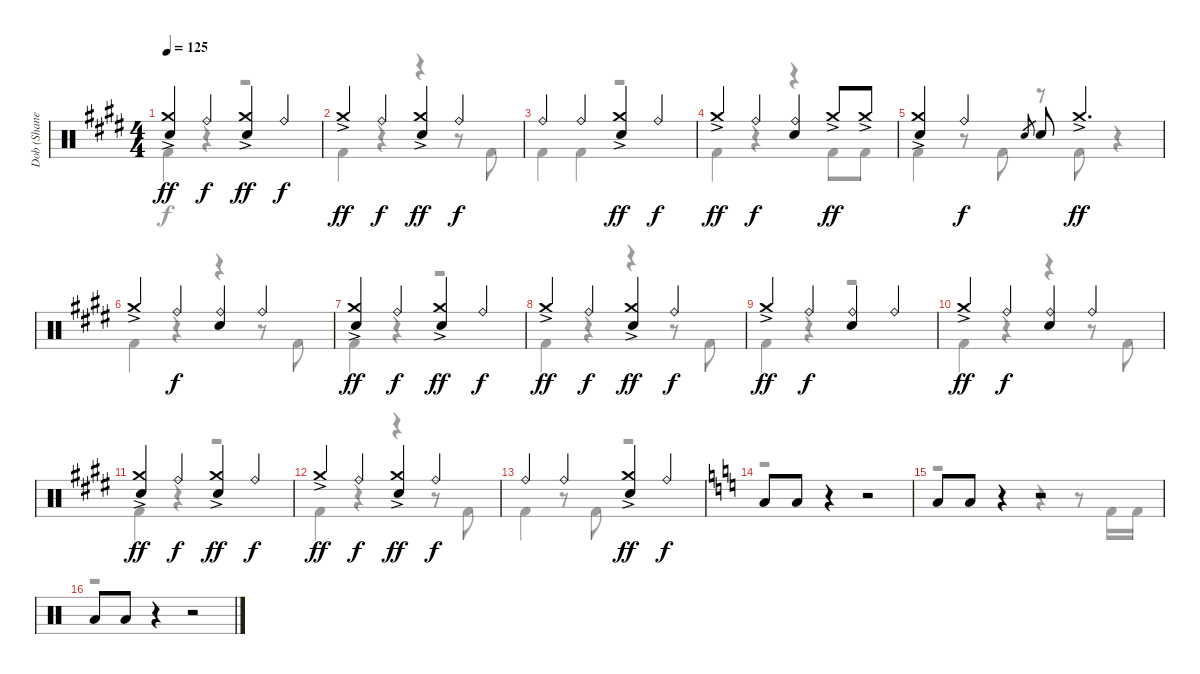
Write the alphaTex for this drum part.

\track ("Dob (Shane Gaalaas)" "Dob (Shane") {instrument percussion}
\staff {score}
\articulation defaults
\voice
\ts (4 4)
\tempo 125
\clef neutral
\ks e
("Crash medium (hit)"{ac} "Electric Snare (hit)").4{dy ff} "Ride (bell)".4{dy f} ("Crash medium (hit)"{ac} "Electric Snare (hit)").4{dy ff} "Ride (bell)".4{dy f} |
"Crash medium (hit)"{ac}.4{dy ff} "Ride (bell)".4{dy f} ("Crash medium (hit)"{ac} "Electric Snare (hit)").4{dy ff} "Ride (bell)".4{dy f} |
"Ride (bell)".4 "Ride (bell)".4 ("Crash medium (hit)"{ac} "Electric Snare (hit)").4{dy ff} "Ride (bell)".4{dy f} |
"Crash medium (hit)"{ac}.4{dy ff} "Ride (bell)".4{dy f} ("Ride (bell)" "Electric Snare (hit)").4 "Crash medium (hit)"{ac}.8{dy ff} "Crash medium (hit)"{ac}.8 |
("Crash medium (hit)"{ac} "Electric Snare (hit)").4 "Ride (bell)".4{dy f} "Electric Snare (hit)".8{gr} "Electric Snare (hit)".8 "Crash medium (hit)"{ac}.4{d dy ff} |
"Crash medium (hit)"{ac}.4 "Ride (bell)".4{dy f} ("Ride (bell)" "Electric Snare (hit)").4 "Ride (bell)".4 |
("Crash medium (hit)"{ac} "Electric Snare (hit)").4{dy ff} "Ride (bell)".4{dy f} ("Crash medium (hit)"{ac} "Electric Snare (hit)").4{dy ff} "Ride (bell)".4{dy f} |
"Crash medium (hit)"{ac}.4{dy ff} "Ride (bell)".4{dy f} ("Crash medium (hit)"{ac} "Electric Snare (hit)").4{dy ff} "Ride (bell)".4{dy f} |
"Crash medium (hit)"{ac}.4{dy ff} "Ride (bell)".4{dy f} ("Ride (bell)" "Electric Snare (hit)").4 "Ride (bell)".4 |
"Crash medium (hit)"{ac}.4{dy ff} "Ride (bell)".4{dy f} ("Ride (bell)" "Electric Snare (hit)").4 "Ride (bell)".4 |
("Crash medium (hit)"{ac} "Electric Snare (hit)").4{dy ff} "Ride (bell)".4{dy f} ("Crash medium (hit)"{ac} "Electric Snare (hit)").4{dy ff} "Ride (bell)".4{dy f} |
"Crash medium (hit)"{ac}.4{dy ff} "Ride (bell)".4{dy f} ("Crash medium (hit)"{ac} "Electric Snare (hit)").4{dy ff} "Ride (bell)".4{dy f} |
"Ride (bell)".4 "Ride (bell)".4 ("Crash medium (hit)"{ac} "Electric Snare (hit)").4{dy ff} "Ride (bell)".4{dy f} |
\ks c "Low Tom (hit)".8{volume 16} "Low Tom (hit)".8
r.4 r.2 |
"Low Tom (hit)".8 "Low Tom (hit)".8 r.4 r.2 |
"Low Tom (hit)".8 "Low Tom (hit)".8 r.4 r.2
\voice
\clef neutral
\ottava regular
\simile none
\ks e "Kick (hit) 2".4{dy f}
r.4 r.2 |
"Kick (hit) 2".4 r.4 r.4 r.8 "Kick (hit) 2".8 |
"Kick (hit) 2".4 "Kick (hit) 2".4 r.2 |
"Kick (hit) 2".4 r.4 r.4 "Kick (hit) 2".8 "Kick (hit) 2".8 |
"Kick (hit) 2".4 r.8 "Kick (hit) 2".8 r.8 "Kick (hit) 2".8 r.4 |
"Kick (hit) 2".4 r.4 r.4 r.8 "Kick (hit) 2".8 |
"Kick (hit) 2".4 r.4 r.2 |
"Kick (hit) 2".4 r.4 r.4 r.8 "Kick (hit) 2".8 |
"Kick (hit) 2".4 r.4 r.2 |
"Kick (hit) 2".4 r.4 r.4 r.8 "Kick (hit) 2".8 |
"Kick (hit) 2".4 r.4 r.2 |
"Kick (hit) 2".4 r.4 r.4 r.8 "Kick (hit) 2".8 |
"Kick (hit) 2".4 r.8 "Kick (hit) 2".8 r.2 |
\ks c
r.1 |
r.2 r.4 r.8 "Kick (hit) 2".16 "Kick (hit) 2".16 |
r.1
